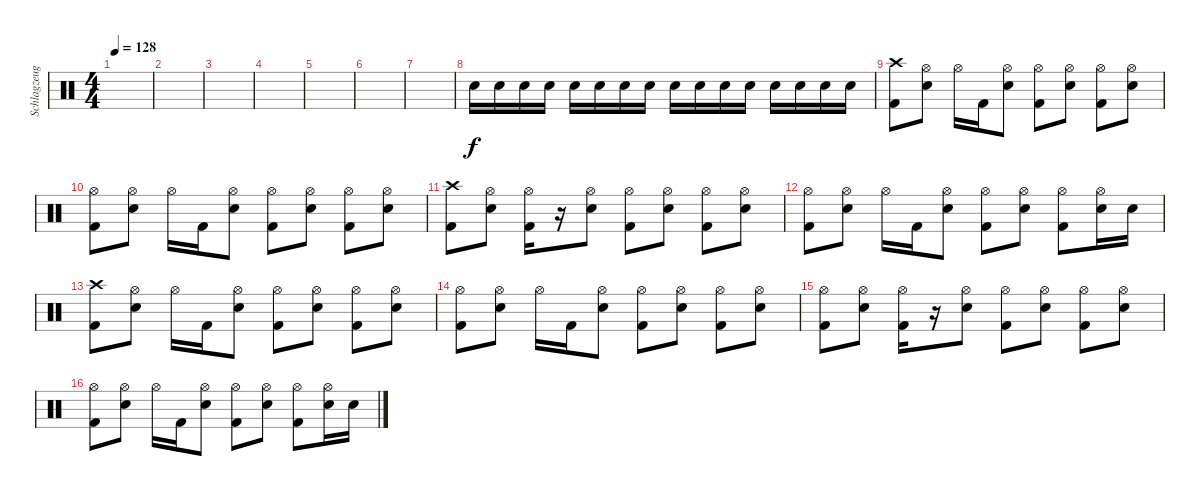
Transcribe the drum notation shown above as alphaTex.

\track ("Schlagzeug" "Schlagzeug") {instrument percussion}
\staff {score}
\articulation defaults
\ts (4 4)
\tempo 128
\clef neutral
\ks c
|
|
|
|
|
|
|
"Electric Snare (hit)".16{volume 8} "Electric Snare (hit)".16 "Electric Snare (hit)".16 "Electric Snare (hit)".16 "Electric Snare (hit)".16{volume 10} "Electric Snare (hit)".16 "Electric Snare (hit)".16 "Electric Snare (hit)".16 "Electric Snare (hit)".16{volume 12} "Electric Snare (hit)".16 "Electric Snare (hit)".16 "Electric Snare (hit)".16 "Electric Snare (hit)".16{volume 14} "Electric Snare (hit)".16 "Electric Snare (hit)".16 "Electric Snare (hit)".16 |
("Crash high (hit)" "Kick (hit) 2").8 ("Hi-Hat (open)" "Snare (hit) 2").8 "Hi-Hat (open)".16 "Kick (hit) 2".16 ("Hi-Hat (open)" "Snare (hit) 2").8 ("Hi-Hat (open)" "Kick (hit) 2").8 ("Hi-Hat (open)" "Snare (hit) 2").8 ("Hi-Hat (open)" "Kick (hit) 2").8 ("Hi-Hat (open)" "Snare (hit) 2").8 |
("Hi-Hat (open)" "Kick (hit) 2").8 ("Hi-Hat (open)" "Snare (hit) 2").8 "Hi-Hat (open)".16 "Kick (hit) 2".16 ("Hi-Hat (open)" "Snare (hit) 2").8 ("Hi-Hat (open)" "Kick (hit) 2").8 ("Hi-Hat (open)" "Snare (hit) 2").8 ("Hi-Hat (open)" "Kick (hit) 2").8 ("Hi-Hat (open)" "Snare (hit) 2").8 |
("Crash high (hit)" "Kick (hit) 2").8 ("Hi-Hat (open)" "Snare (hit) 2").8 ("Hi-Hat (open)" "Kick (hit) 2").16 r.16 ("Hi-Hat (open)" "Snare (hit) 2").8 ("Hi-Hat (open)" "Kick (hit) 2").8 ("Hi-Hat (open)" "Snare (hit) 2").8 ("Hi-Hat (open)" "Kick (hit) 2").8 ("Hi-Hat (open)" "Snare (hit) 2").8 |
("Hi-Hat (open)" "Kick (hit) 2").8 ("Hi-Hat (open)" "Snare (hit) 2").8 "Hi-Hat (open)".16 "Kick (hit) 2".16 ("Hi-Hat (open)" "Snare (hit) 2").8 ("Hi-Hat (open)" "Kick (hit) 2").8 ("Hi-Hat (open)" "Snare (hit) 2").8 ("Hi-Hat (open)" "Kick (hit) 2").8 ("Hi-Hat (open)" "Snare (hit) 2").16 "Snare (hit) 2".16 |
("Crash high (hit)" "Kick (hit) 2").8 ("Hi-Hat (open)" "Snare (hit) 2").8 "Hi-Hat (open)".16 "Kick (hit) 2".16 ("Hi-Hat (open)" "Snare (hit) 2").8 ("Hi-Hat (open)" "Kick (hit) 2").8 ("Hi-Hat (open)" "Snare (hit) 2").8 ("Hi-Hat (open)" "Kick (hit) 2").8 ("Hi-Hat (open)" "Snare (hit) 2").8 |
("Hi-Hat (open)" "Kick (hit) 2").8 ("Hi-Hat (open)" "Snare (hit) 2").8 "Hi-Hat (open)".16 "Kick (hit) 2".16 ("Hi-Hat (open)" "Snare (hit) 2").8 ("Hi-Hat (open)" "Kick (hit) 2").8 ("Hi-Hat (open)" "Snare (hit) 2").8 ("Hi-Hat (open)" "Kick (hit) 2").8 ("Hi-Hat (open)" "Snare (hit) 2").8 |
("Hi-Hat (open)" "Kick (hit) 2").8 ("Hi-Hat (open)" "Snare (hit) 2").8 ("Hi-Hat (open)" "Kick (hit) 2").16 r.16 ("Hi-Hat (open)" "Snare (hit) 2").8 ("Hi-Hat (open)" "Kick (hit) 2").8 ("Hi-Hat (open)" "Snare (hit) 2").8 ("Hi-Hat (open)" "Kick (hit) 2").8 ("Hi-Hat (open)" "Snare (hit) 2").8 |
("Hi-Hat (open)" "Kick (hit) 2").8 ("Hi-Hat (open)" "Snare (hit) 2").8 "Hi-Hat (open)".16 "Kick (hit) 2".16 ("Hi-Hat (open)" "Snare (hit) 2").8 ("Hi-Hat (open)" "Kick (hit) 2").8 ("Hi-Hat (open)" "Snare (hit) 2").8 ("Hi-Hat (open)" "Kick (hit) 2").8 ("Hi-Hat (open)" "Snare (hit) 2").16 "Snare (hit) 2".16
